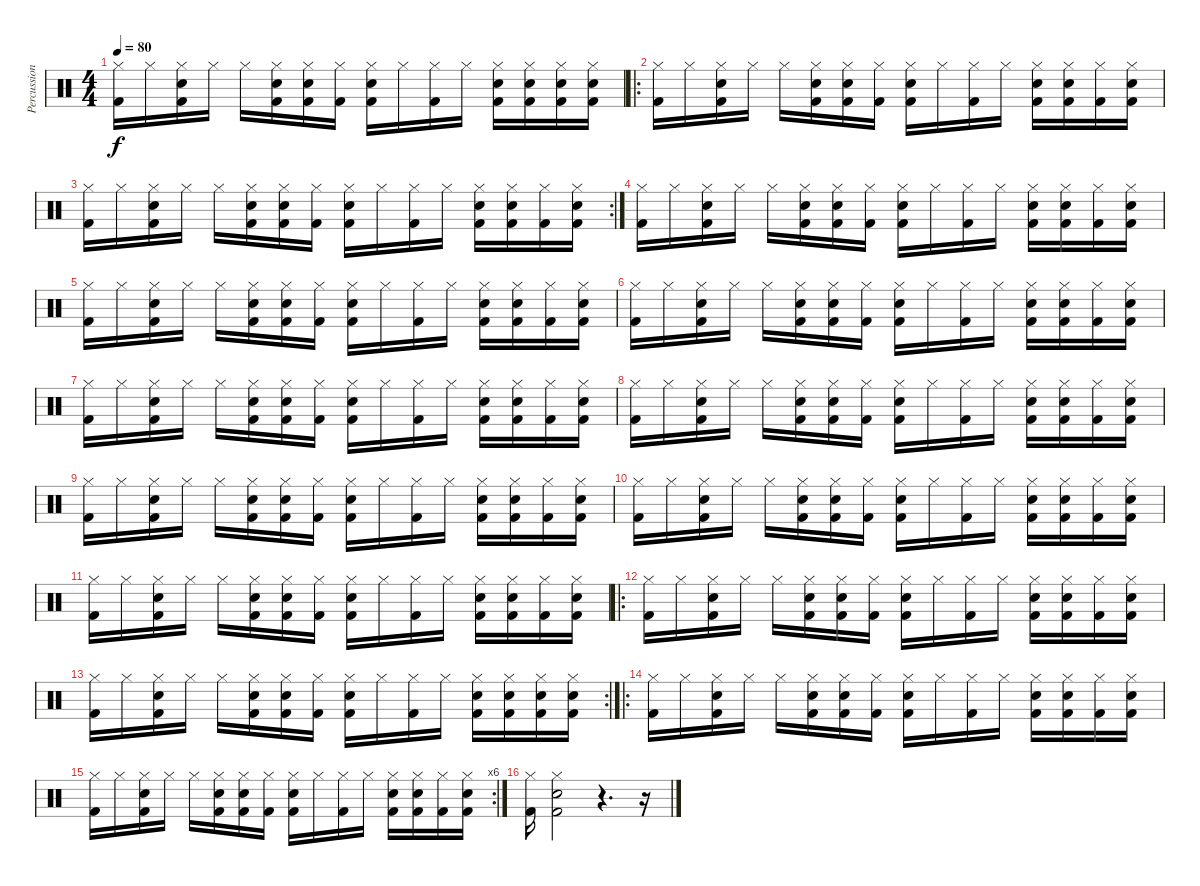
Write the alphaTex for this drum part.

\track ("Percussions" "Percussion") {instrument percussion}
\staff {score}
\articulation defaults
\ts (4 4)
\tempo 80
\clef neutral
\ks c
("Hi-Hat (closed)" "Kick (hit) 2").16{dy f} "Hi-Hat (closed)".16 ("Hi-Hat (closed)" "Kick (hit) 2" "Electric Snare (hit)").16 "Hi-Hat (closed)".16 "Hi-Hat (closed)".16 ("Hi-Hat (closed)" "Kick (hit) 2" "Electric Snare (hit)").16 ("Hi-Hat (closed)" "Kick (hit) 2" "Electric Snare (hit)").16 ("Hi-Hat (closed)" "Kick (hit) 2").16 ("Hi-Hat (closed)" "Kick (hit) 2" "Electric Snare (hit)").16 "Hi-Hat (closed)".16 ("Hi-Hat (closed)" "Kick (hit) 2").16 "Hi-Hat (closed)".16 ("Hi-Hat (closed)" "Kick (hit) 2" "Electric Snare (hit)").16 ("Hi-Hat (closed)" "Kick (hit) 2" "Electric Snare (hit)").16 ("Hi-Hat (closed)" "Kick (hit) 2" "Electric Snare (hit)").16 ("Hi-Hat (closed)" "Kick (hit) 2" "Electric Snare (hit)").16 |
\ro
("Hi-Hat (closed)" "Kick (hit) 2").16 "Hi-Hat (closed)".16 ("Hi-Hat (closed)" "Kick (hit) 2" "Electric Snare (hit)").16 "Hi-Hat (closed)".16 "Hi-Hat (closed)".16 ("Hi-Hat (closed)" "Kick (hit) 2" "Electric Snare (hit)").16 ("Hi-Hat (closed)" "Kick (hit) 2" "Electric Snare (hit)").16 ("Hi-Hat (closed)" "Kick (hit) 2").16 ("Hi-Hat (closed)" "Kick (hit) 2" "Electric Snare (hit)").16 "Hi-Hat (closed)".16 ("Hi-Hat (closed)" "Kick (hit) 2").16 "Hi-Hat (closed)".16 ("Hi-Hat (closed)" "Kick (hit) 2" "Electric Snare (hit)").16 ("Hi-Hat (closed)" "Kick (hit) 2" "Electric Snare (hit)").16 ("Hi-Hat (closed)" "Kick (hit) 2").16 ("Hi-Hat (closed)" "Kick (hit) 2" "Electric Snare (hit)").16 |
\rc 2
("Hi-Hat (closed)" "Kick (hit) 2").16 "Hi-Hat (closed)".16 ("Hi-Hat (closed)" "Kick (hit) 2" "Electric Snare (hit)").16 "Hi-Hat (closed)".16 "Hi-Hat (closed)".16 ("Hi-Hat (closed)" "Kick (hit) 2" "Electric Snare (hit)").16 ("Hi-Hat (closed)" "Kick (hit) 2" "Electric Snare (hit)").16 ("Hi-Hat (closed)" "Kick (hit) 2").16 ("Hi-Hat (closed)" "Kick (hit) 2" "Electric Snare (hit)").16 "Hi-Hat (closed)".16 ("Hi-Hat (closed)" "Kick (hit) 2").16 "Hi-Hat (closed)".16 ("Hi-Hat (closed)" "Kick (hit) 2" "Electric Snare (hit)").16 ("Hi-Hat (closed)" "Kick (hit) 2" "Electric Snare (hit)").16 ("Hi-Hat (closed)" "Kick (hit) 2").16 ("Hi-Hat (closed)" "Kick (hit) 2" "Electric Snare (hit)").16 |
("Hi-Hat (closed)" "Kick (hit) 2").16 "Hi-Hat (closed)".16 ("Hi-Hat (closed)" "Kick (hit) 2" "Electric Snare (hit)").16 "Hi-Hat (closed)".16 "Hi-Hat (closed)".16 ("Hi-Hat (closed)" "Kick (hit) 2" "Electric Snare (hit)").16 ("Hi-Hat (closed)" "Kick (hit) 2" "Electric Snare (hit)").16 ("Hi-Hat (closed)" "Kick (hit) 2").16 ("Hi-Hat (closed)" "Kick (hit) 2" "Electric Snare (hit)").16 "Hi-Hat (closed)".16 ("Hi-Hat (closed)" "Kick (hit) 2").16 "Hi-Hat (closed)".16 ("Hi-Hat (closed)" "Kick (hit) 2" "Electric Snare (hit)").16 ("Hi-Hat (closed)" "Kick (hit) 2" "Electric Snare (hit)").16 ("Hi-Hat (closed)" "Kick (hit) 2").16 ("Hi-Hat (closed)" "Kick (hit) 2" "Electric Snare (hit)").16 |
("Hi-Hat (closed)" "Kick (hit) 2").16 "Hi-Hat (closed)".16 ("Hi-Hat (closed)" "Kick (hit) 2" "Electric Snare (hit)").16 "Hi-Hat (closed)".16 "Hi-Hat (closed)".16 ("Hi-Hat (closed)" "Kick (hit) 2" "Electric Snare (hit)").16 ("Hi-Hat (closed)" "Kick (hit) 2" "Electric Snare (hit)").16 ("Hi-Hat (closed)" "Kick (hit) 2").16 ("Hi-Hat (closed)" "Kick (hit) 2" "Electric Snare (hit)").16 "Hi-Hat (closed)".16 ("Hi-Hat (closed)" "Kick (hit) 2").16 "Hi-Hat (closed)".16 ("Hi-Hat (closed)" "Kick (hit) 2" "Electric Snare (hit)").16 ("Hi-Hat (closed)" "Kick (hit) 2" "Electric Snare (hit)").16 ("Hi-Hat (closed)" "Kick (hit) 2").16 ("Hi-Hat (closed)" "Kick (hit) 2" "Electric Snare (hit)").16 |
("Hi-Hat (closed)" "Kick (hit) 2").16 "Hi-Hat (closed)".16 ("Hi-Hat (closed)" "Kick (hit) 2" "Electric Snare (hit)").16 "Hi-Hat (closed)".16 "Hi-Hat (closed)".16 ("Hi-Hat (closed)" "Kick (hit) 2" "Electric Snare (hit)").16 ("Hi-Hat (closed)" "Kick (hit) 2" "Electric Snare (hit)").16 ("Hi-Hat (closed)" "Kick (hit) 2").16 ("Hi-Hat (closed)" "Kick (hit) 2" "Electric Snare (hit)").16 "Hi-Hat (closed)".16 ("Hi-Hat (closed)" "Kick (hit) 2").16 "Hi-Hat (closed)".16 ("Hi-Hat (closed)" "Kick (hit) 2" "Electric Snare (hit)").16 ("Hi-Hat (closed)" "Kick (hit) 2" "Electric Snare (hit)").16 ("Hi-Hat (closed)" "Kick (hit) 2").16 ("Hi-Hat (closed)" "Kick (hit) 2" "Electric Snare (hit)").16 |
("Hi-Hat (closed)" "Kick (hit) 2").16 "Hi-Hat (closed)".16 ("Hi-Hat (closed)" "Kick (hit) 2" "Electric Snare (hit)").16 "Hi-Hat (closed)".16 "Hi-Hat (closed)".16 ("Hi-Hat (closed)" "Kick (hit) 2" "Electric Snare (hit)").16 ("Hi-Hat (closed)" "Kick (hit) 2" "Electric Snare (hit)").16 ("Hi-Hat (closed)" "Kick (hit) 2").16 ("Hi-Hat (closed)" "Kick (hit) 2" "Electric Snare (hit)").16 "Hi-Hat (closed)".16 ("Hi-Hat (closed)" "Kick (hit) 2").16 "Hi-Hat (closed)".16 ("Hi-Hat (closed)" "Kick (hit) 2" "Electric Snare (hit)").16 ("Hi-Hat (closed)" "Kick (hit) 2" "Electric Snare (hit)").16 ("Hi-Hat (closed)" "Kick (hit) 2").16 ("Hi-Hat (closed)" "Kick (hit) 2" "Electric Snare (hit)").16 |
("Hi-Hat (closed)" "Kick (hit) 2").16 "Hi-Hat (closed)".16 ("Hi-Hat (closed)" "Kick (hit) 2" "Electric Snare (hit)").16 "Hi-Hat (closed)".16 "Hi-Hat (closed)".16 ("Hi-Hat (closed)" "Kick (hit) 2" "Electric Snare (hit)").16 ("Hi-Hat (closed)" "Kick (hit) 2" "Electric Snare (hit)").16 ("Hi-Hat (closed)" "Kick (hit) 2").16 ("Hi-Hat (closed)" "Kick (hit) 2" "Electric Snare (hit)").16 "Hi-Hat (closed)".16 ("Hi-Hat (closed)" "Kick (hit) 2").16 "Hi-Hat (closed)".16 ("Hi-Hat (closed)" "Kick (hit) 2" "Electric Snare (hit)").16 ("Hi-Hat (closed)" "Kick (hit) 2" "Electric Snare (hit)").16 ("Hi-Hat (closed)" "Kick (hit) 2").16 ("Hi-Hat (closed)" "Kick (hit) 2" "Electric Snare (hit)").16 |
("Hi-Hat (closed)" "Kick (hit) 2").16 "Hi-Hat (closed)".16 ("Hi-Hat (closed)" "Kick (hit) 2" "Electric Snare (hit)").16 "Hi-Hat (closed)".16 "Hi-Hat (closed)".16 ("Hi-Hat (closed)" "Kick (hit) 2" "Electric Snare (hit)").16 ("Hi-Hat (closed)" "Kick (hit) 2" "Electric Snare (hit)").16 ("Hi-Hat (closed)" "Kick (hit) 2").16 ("Hi-Hat (closed)" "Kick (hit) 2" "Electric Snare (hit)").16 "Hi-Hat (closed)".16 ("Hi-Hat (closed)" "Kick (hit) 2").16 "Hi-Hat (closed)".16 ("Hi-Hat (closed)" "Kick (hit) 2" "Electric Snare (hit)").16 ("Hi-Hat (closed)" "Kick (hit) 2" "Electric Snare (hit)").16 ("Hi-Hat (closed)" "Kick (hit) 2").16 ("Hi-Hat (closed)" "Kick (hit) 2" "Electric Snare (hit)").16 |
("Hi-Hat (closed)" "Kick (hit) 2").16 "Hi-Hat (closed)".16 ("Hi-Hat (closed)" "Kick (hit) 2" "Electric Snare (hit)").16 "Hi-Hat (closed)".16 "Hi-Hat (closed)".16 ("Hi-Hat (closed)" "Kick (hit) 2" "Electric Snare (hit)").16 ("Hi-Hat (closed)" "Kick (hit) 2" "Electric Snare (hit)").16 ("Hi-Hat (closed)" "Kick (hit) 2").16 ("Hi-Hat (closed)" "Kick (hit) 2" "Electric Snare (hit)").16 "Hi-Hat (closed)".16 ("Hi-Hat (closed)" "Kick (hit) 2").16 "Hi-Hat (closed)".16 ("Hi-Hat (closed)" "Kick (hit) 2" "Electric Snare (hit)").16 ("Hi-Hat (closed)" "Kick (hit) 2" "Electric Snare (hit)").16 ("Hi-Hat (closed)" "Kick (hit) 2").16 ("Hi-Hat (closed)" "Kick (hit) 2" "Electric Snare (hit)").16 |
("Hi-Hat (closed)" "Kick (hit) 2").16 "Hi-Hat (closed)".16 ("Hi-Hat (closed)" "Kick (hit) 2" "Electric Snare (hit)").16 "Hi-Hat (closed)".16 "Hi-Hat (closed)".16 ("Hi-Hat (closed)" "Kick (hit) 2" "Electric Snare (hit)").16 ("Hi-Hat (closed)" "Kick (hit) 2" "Electric Snare (hit)").16 ("Hi-Hat (closed)" "Kick (hit) 2").16 ("Hi-Hat (closed)" "Kick (hit) 2" "Electric Snare (hit)").16 "Hi-Hat (closed)".16 ("Hi-Hat (closed)" "Kick (hit) 2").16 "Hi-Hat (closed)".16 ("Hi-Hat (closed)" "Kick (hit) 2" "Electric Snare (hit)").16 ("Hi-Hat (closed)" "Kick (hit) 2" "Electric Snare (hit)").16 ("Hi-Hat (closed)" "Kick (hit) 2").16 ("Hi-Hat (closed)" "Kick (hit) 2" "Electric Snare (hit)").16 |
\ro
("Hi-Hat (closed)" "Kick (hit) 2").16 "Hi-Hat (closed)".16 ("Hi-Hat (closed)" "Kick (hit) 2" "Electric Snare (hit)").16 "Hi-Hat (closed)".16 "Hi-Hat (closed)".16 ("Hi-Hat (closed)" "Kick (hit) 2" "Electric Snare (hit)").16 ("Hi-Hat (closed)" "Kick (hit) 2" "Electric Snare (hit)").16 ("Hi-Hat (closed)" "Kick (hit) 2").16 ("Hi-Hat (closed)" "Kick (hit) 2" "Electric Snare (hit)").16 "Hi-Hat (closed)".16 ("Hi-Hat (closed)" "Kick (hit) 2").16 "Hi-Hat (closed)".16 ("Hi-Hat (closed)" "Kick (hit) 2" "Electric Snare (hit)").16 ("Hi-Hat (closed)" "Kick (hit) 2" "Electric Snare (hit)").16 ("Hi-Hat (closed)" "Kick (hit) 2").16 ("Hi-Hat (closed)" "Kick (hit) 2" "Electric Snare (hit)").16 |
\rc 2
("Hi-Hat (closed)" "Kick (hit) 2").16 "Hi-Hat (closed)".16 ("Hi-Hat (closed)" "Kick (hit) 2" "Electric Snare (hit)").16 "Hi-Hat (closed)".16 "Hi-Hat (closed)".16 ("Hi-Hat (closed)" "Kick (hit) 2" "Electric Snare (hit)").16 ("Hi-Hat (closed)" "Kick (hit) 2" "Electric Snare (hit)").16 ("Hi-Hat (closed)" "Kick (hit) 2").16 ("Hi-Hat (closed)" "Kick (hit) 2" "Electric Snare (hit)").16 "Hi-Hat (closed)".16 ("Hi-Hat (closed)" "Kick (hit) 2").16 "Hi-Hat (closed)".16 ("Hi-Hat (closed)" "Kick (hit) 2" "Electric Snare (hit)").16 ("Hi-Hat (closed)" "Kick (hit) 2" "Electric Snare (hit)").16 ("Hi-Hat (closed)" "Kick (hit) 2" "Electric Snare (hit)").16 ("Hi-Hat (closed)" "Kick (hit) 2" "Electric Snare (hit)").16 |
\ro
("Hi-Hat (closed)" "Kick (hit) 2").16 "Hi-Hat (closed)".16 ("Hi-Hat (closed)" "Kick (hit) 2" "Electric Snare (hit)").16 "Hi-Hat (closed)".16 "Hi-Hat (closed)".16 ("Hi-Hat (closed)" "Kick (hit) 2" "Electric Snare (hit)").16 ("Hi-Hat (closed)" "Kick (hit) 2" "Electric Snare (hit)").16 ("Hi-Hat (closed)" "Kick (hit) 2").16 ("Hi-Hat (closed)" "Kick (hit) 2" "Electric Snare (hit)").16 "Hi-Hat (closed)".16 ("Hi-Hat (closed)" "Kick (hit) 2").16 "Hi-Hat (closed)".16 ("Hi-Hat (closed)" "Kick (hit) 2" "Electric Snare (hit)").16 ("Hi-Hat (closed)" "Kick (hit) 2" "Electric Snare (hit)").16 ("Hi-Hat (closed)" "Kick (hit) 2").16 ("Hi-Hat (closed)" "Kick (hit) 2" "Electric Snare (hit)").16 |
\rc 6
("Hi-Hat (closed)" "Kick (hit) 2").16 "Hi-Hat (closed)".16 ("Hi-Hat (closed)" "Kick (hit) 2" "Electric Snare (hit)").16 "Hi-Hat (closed)".16 "Hi-Hat (closed)".16 ("Hi-Hat (closed)" "Kick (hit) 2" "Electric Snare (hit)").16 ("Hi-Hat (closed)" "Kick (hit) 2" "Electric Snare (hit)").16 ("Hi-Hat (closed)" "Kick (hit) 2").16 ("Hi-Hat (closed)" "Kick (hit) 2" "Electric Snare (hit)").16 "Hi-Hat (closed)".16 ("Hi-Hat (closed)" "Kick (hit) 2").16 "Hi-Hat (closed)".16 ("Hi-Hat (closed)" "Kick (hit) 2" "Electric Snare (hit)").16 ("Hi-Hat (closed)" "Kick (hit) 2" "Electric Snare (hit)").16 ("Hi-Hat (closed)" "Kick (hit) 2").16 ("Hi-Hat (closed)" "Kick (hit) 2" "Electric Snare (hit)").16 |
("Hi-Hat (closed)" "Kick (hit) 2").16 ("Hi-Hat (closed)" "Kick (hit) 2" "Electric Snare (hit)").2 r.4{d} r.16
